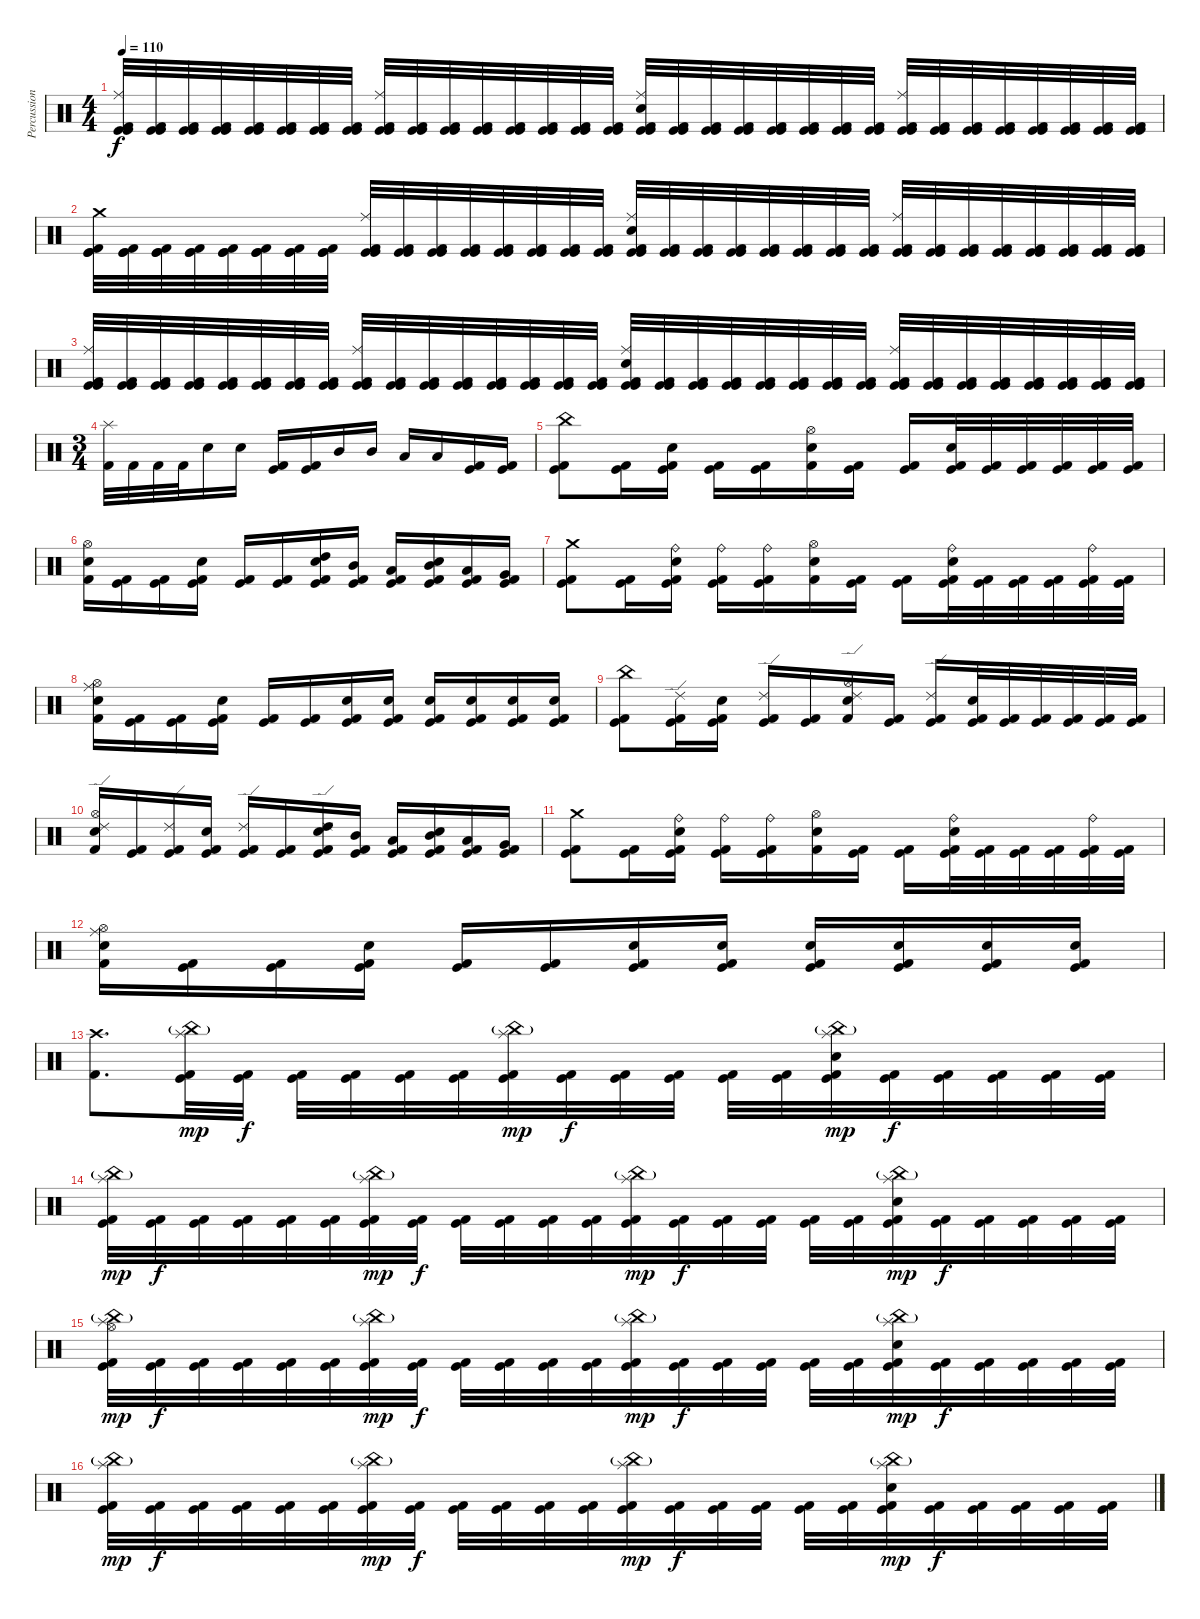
\track ("Percussion" "Percussion") {instrument percussion}
\staff {score}
\articulation defaults
\ts (4 4)
\tempo 110
\clef neutral
\ks c
("Kick (hit)" "Ride (middle)" "Kick (hit)" "Kick (hit) 2").32{dy f} ("Kick (hit)" "Kick (hit)" "Kick (hit) 2").32 ("Kick (hit)" "Kick (hit)" "Kick (hit) 2").32 ("Kick (hit)" "Kick (hit)" "Kick (hit) 2").32 ("Kick (hit)" "Kick (hit)" "Kick (hit) 2").32 ("Kick (hit)" "Kick (hit)" "Kick (hit) 2").32 ("Kick (hit)" "Kick (hit)" "Kick (hit) 2").32 ("Kick (hit)" "Kick (hit)" "Kick (hit) 2").32 ("Kick (hit)" "Ride (middle)" "Kick (hit)" "Kick (hit) 2").32 ("Kick (hit)" "Kick (hit)" "Kick (hit) 2").32 ("Kick (hit)" "Kick (hit)" "Kick (hit) 2").32 ("Kick (hit)" "Kick (hit)" "Kick (hit) 2").32 ("Kick (hit)" "Kick (hit)" "Kick (hit) 2").32 ("Kick (hit)" "Kick (hit)" "Kick (hit) 2").32 ("Kick (hit)" "Kick (hit)" "Kick (hit) 2").32 ("Kick (hit)" "Kick (hit)" "Kick (hit) 2").32 ("Kick (hit)" "Electric Snare (hit)" "Ride (middle)" "Kick (hit)" "Kick (hit) 2").32 ("Kick (hit)" "Kick (hit)" "Kick (hit) 2").32 ("Kick (hit)" "Kick (hit)" "Kick (hit) 2").32 ("Kick (hit)" "Kick (hit)" "Kick (hit) 2").32 ("Kick (hit)" "Kick (hit)" "Kick (hit) 2").32 ("Kick (hit)" "Kick (hit)" "Kick (hit) 2").32 ("Kick (hit)" "Kick (hit)" "Kick (hit) 2").32 ("Kick (hit)" "Kick (hit)" "Kick (hit) 2").32 ("Kick (hit)" "Ride (middle)" "Kick (hit)" "Kick (hit) 2").32 ("Kick (hit)" "Kick (hit)" "Kick (hit) 2").32 ("Kick (hit)" "Kick (hit)" "Kick (hit) 2").32 ("Kick (hit)" "Kick (hit)" "Kick (hit) 2").32 ("Kick (hit)" "Kick (hit)" "Kick (hit) 2").32 ("Kick (hit)" "Kick (hit)" "Kick (hit) 2").32 ("Kick (hit)" "Kick (hit)" "Kick (hit) 2").32 ("Kick (hit)" "Kick (hit)" "Kick (hit) 2").32 |
("Kick (hit)" "Crash medium (hit)" "Kick (hit)" "Kick (hit) 2").32 ("Kick (hit)" "Kick (hit)" "Kick (hit) 2").32 ("Kick (hit)" "Kick (hit)" "Kick (hit) 2").32 ("Kick (hit)" "Kick (hit)" "Kick (hit) 2").32 ("Kick (hit)" "Kick (hit)" "Kick (hit) 2").32 ("Kick (hit)" "Kick (hit)" "Kick (hit) 2").32 ("Kick (hit)" "Kick (hit)" "Kick (hit) 2").32 ("Kick (hit)" "Kick (hit)" "Kick (hit) 2").32 ("Kick (hit)" "Ride (middle)" "Kick (hit)" "Kick (hit) 2").32 ("Kick (hit)" "Kick (hit)" "Kick (hit) 2").32 ("Kick (hit)" "Kick (hit)" "Kick (hit) 2").32 ("Kick (hit)" "Kick (hit)" "Kick (hit) 2").32 ("Kick (hit)" "Kick (hit)" "Kick (hit) 2").32 ("Kick (hit)" "Kick (hit)" "Kick (hit) 2").32 ("Kick (hit)" "Kick (hit)" "Kick (hit) 2").32 ("Kick (hit)" "Kick (hit)" "Kick (hit) 2").32 ("Kick (hit)" "Electric Snare (hit)" "Ride (middle)" "Kick (hit)" "Kick (hit) 2").32 ("Kick (hit)" "Kick (hit)" "Kick (hit) 2").32 ("Kick (hit)" "Kick (hit)" "Kick (hit) 2").32 ("Kick (hit)" "Kick (hit)" "Kick (hit) 2").32 ("Kick (hit)" "Kick (hit)" "Kick (hit) 2").32 ("Kick (hit)" "Kick (hit)" "Kick (hit) 2").32 ("Kick (hit)" "Kick (hit)" "Kick (hit) 2").32 ("Kick (hit)" "Kick (hit)" "Kick (hit) 2").32 ("Kick (hit)" "Ride (middle)" "Kick (hit)" "Kick (hit) 2").32 ("Kick (hit)" "Kick (hit)" "Kick (hit) 2").32 ("Kick (hit)" "Kick (hit)" "Kick (hit) 2").32 ("Kick (hit)" "Kick (hit)" "Kick (hit) 2").32 ("Kick (hit)" "Kick (hit)" "Kick (hit) 2").32 ("Kick (hit)" "Kick (hit)" "Kick (hit) 2").32 ("Kick (hit)" "Kick (hit)" "Kick (hit) 2").32 ("Kick (hit)" "Kick (hit)" "Kick (hit) 2").32 |
("Kick (hit)" "Ride (middle)" "Kick (hit)" "Kick (hit) 2").32 ("Kick (hit)" "Kick (hit)" "Kick (hit) 2").32 ("Kick (hit)" "Kick (hit)" "Kick (hit) 2").32 ("Kick (hit)" "Kick (hit)" "Kick (hit) 2").32 ("Kick (hit)" "Kick (hit)" "Kick (hit) 2").32 ("Kick (hit)" "Kick (hit)" "Kick (hit) 2").32 ("Kick (hit)" "Kick (hit)" "Kick (hit) 2").32 ("Kick (hit)" "Kick (hit)" "Kick (hit) 2").32 ("Kick (hit)" "Ride (middle)" "Kick (hit)" "Kick (hit) 2").32 ("Kick (hit)" "Kick (hit)" "Kick (hit) 2").32 ("Kick (hit)" "Kick (hit)" "Kick (hit) 2").32 ("Kick (hit)" "Kick (hit)" "Kick (hit) 2").32 ("Kick (hit)" "Kick (hit)" "Kick (hit) 2").32 ("Kick (hit)" "Kick (hit)" "Kick (hit) 2").32 ("Kick (hit)" "Kick (hit)" "Kick (hit) 2").32 ("Kick (hit)" "Kick (hit)" "Kick (hit) 2").32 ("Kick (hit)" "Electric Snare (hit)" "Ride (middle)" "Kick (hit)" "Kick (hit) 2").32 ("Kick (hit)" "Kick (hit)" "Kick (hit) 2").32 ("Kick (hit)" "Kick (hit)" "Kick (hit) 2").32 ("Kick (hit)" "Kick (hit)" "Kick (hit) 2").32 ("Kick (hit)" "Kick (hit)" "Kick (hit) 2").32 ("Kick (hit)" "Kick (hit)" "Kick (hit) 2").32 ("Kick (hit)" "Kick (hit)" "Kick (hit) 2").32 ("Kick (hit)" "Kick (hit)" "Kick (hit) 2").32 ("Kick (hit)" "Ride (middle)" "Kick (hit)" "Kick (hit) 2").32 ("Kick (hit)" "Kick (hit)" "Kick (hit) 2").32 ("Kick (hit)" "Kick (hit)" "Kick (hit) 2").32 ("Kick (hit)" "Kick (hit)" "Kick (hit) 2").32 ("Kick (hit)" "Kick (hit)" "Kick (hit) 2").32 ("Kick (hit)" "Kick (hit)" "Kick (hit) 2").32 ("Kick (hit)" "Kick (hit)" "Kick (hit) 2").32 ("Kick (hit)" "Kick (hit)" "Kick (hit) 2").32 |
\ts (3 4)
("Splash (hit)" "Kick (hit) 2").32 "Kick (hit) 2".32 "Kick (hit) 2".32 "Kick (hit) 2".32 "Electric Snare (hit)".16 "Electric Snare (hit)".16 ("Kick (hit)" "Kick (hit) 2").16 ("Kick (hit)" "Kick (hit) 2").16 "Mid Tom (hit)".16 "Mid Tom (hit)".16 "Low Tom (hit)".16 "Low Tom (hit)".16 ("Kick (hit)" "Kick (hit) 2").16 ("Kick (hit)" "Kick (hit) 2").16 |
("Kick (hit)" "China (hit)" "Kick (hit) 2").8 ("Kick (hit)" "Kick (hit) 2").16 ("Kick (hit)" "Electric Snare (hit)" "Kick (hit) 2").16 ("Kick (hit)" "Kick (hit) 2").16 ("Kick (hit)" "Kick (hit) 2").16 ("Hi-Hat (open)" "Electric Snare (hit)" "Kick (hit) 2").16 ("Kick (hit)" "Kick (hit) 2").16 ("Kick (hit)" "Kick (hit) 2").16 ("Kick (hit)" "Electric Snare (hit)" "Kick (hit) 2").32 ("Kick (hit)" "Kick (hit) 2").32 ("Kick (hit)" "Kick (hit) 2").32 ("Kick (hit)" "Kick (hit) 2").32 ("Kick (hit)" "Kick (hit) 2").32 ("Kick (hit)" "Kick (hit) 2").32 |
("Hi-Hat (open)" "Electric Snare (hit)" "Kick (hit) 2").16 ("Kick (hit)" "Kick (hit) 2").16 ("Kick (hit)" "Kick (hit) 2").16 ("Kick (hit)" "Electric Snare (hit)" "Kick (hit) 2").16 ("Kick (hit)" "Kick (hit) 2").16 ("Kick (hit)" "Kick (hit) 2").16 ("Kick (hit)" "Electric Snare (hit)" "High Tom (hit)" "Kick (hit) 2").16 ("Kick (hit)" "Mid Tom (hit)" "Kick (hit) 2").16 ("Kick (hit)" "Low Tom (hit)" "Kick (hit) 2").16 ("Kick (hit)" "Electric Snare (hit)" "Mid Tom (hit)" "Kick (hit) 2").16 ("Kick (hit)" "Low Tom (hit)" "Kick (hit) 2").16 ("Kick (hit)" "Very Low Tom (hit)" "Kick (hit) 2").16 |
("Kick (hit)" "Crash medium (hit)" "Kick (hit) 2").8 ("Kick (hit)" "Kick (hit) 2").16 ("Kick (hit)" "Electric Snare (hit)" "Ride (bell)" "Kick (hit) 2").16 ("Kick (hit)" "Ride (bell)" "Kick (hit) 2").16 ("Kick (hit)" "Ride (bell)" "Kick (hit) 2").16 ("Hi-Hat (open)" "Electric Snare (hit)" "Kick (hit) 2").16 ("Kick (hit)" "Kick (hit) 2").16 ("Kick (hit)" "Kick (hit) 2").16 ("Kick (hit)" "Electric Snare (hit)" "Ride (bell)" "Kick (hit) 2").32 ("Kick (hit)" "Kick (hit) 2").32 ("Kick (hit)" "Kick (hit) 2").32 ("Kick (hit)" "Kick (hit) 2").32 ("Kick (hit)" "Ride (bell)" "Kick (hit) 2").32 ("Kick (hit)" "Kick (hit) 2").32 |
("Hi-Hat (open)" "Electric Snare (hit)" "Ride (middle)" "Kick (hit) 2").16 ("Kick (hit)" "Kick (hit) 2").16 ("Kick (hit)" "Kick (hit) 2").16 ("Kick (hit)" "Electric Snare (hit)" "Kick (hit) 2").16 ("Kick (hit)" "Kick (hit) 2").16 ("Kick (hit)" "Kick (hit) 2").16 ("Kick (hit)" "Electric Snare (hit)" "Kick (hit) 2").16 ("Kick (hit)" "Electric Snare (hit)" "Kick (hit) 2").16 ("Kick (hit)" "Electric Snare (hit)" "Kick (hit) 2").16 ("Kick (hit)" "Electric Snare (hit)" "Kick (hit) 2").16 ("Kick (hit)" "Electric Snare (hit)" "Kick (hit) 2").16 ("Kick (hit)" "Electric Snare (hit)" "Kick (hit) 2").16 |
("Kick (hit)" "China (hit)" "Kick (hit) 2").8 ("Kick (hit)" "Ride (edge) 2" "Kick (hit) 2").16 ("Kick (hit)" "Electric Snare (hit)" "Kick (hit) 2").16 ("Kick (hit)" "Ride (edge) 2" "Kick (hit) 2").16 ("Kick (hit)" "Kick (hit) 2").16 ("Hi-Hat (open)" "Ride (edge) 2" "Electric Snare (hit)" "Kick (hit) 2").16 ("Kick (hit)" "Kick (hit) 2").16 ("Kick (hit)" "Ride (edge) 2" "Kick (hit) 2").16 ("Kick (hit)" "Electric Snare (hit)" "Kick (hit) 2").32 ("Kick (hit)" "Kick (hit) 2").32 ("Kick (hit)" "Kick (hit) 2").32 ("Kick (hit)" "Kick (hit) 2").32 ("Kick (hit)" "Kick (hit) 2").32 ("Kick (hit)" "Kick (hit) 2").32 |
("Hi-Hat (open)" "Ride (edge) 2" "Electric Snare (hit)" "Kick (hit) 2").16 ("Kick (hit)" "Kick (hit) 2").16 ("Kick (hit)" "Ride (edge) 2" "Kick (hit) 2").16 ("Kick (hit)" "Electric Snare (hit)" "Kick (hit) 2").16 ("Kick (hit)" "Ride (edge) 2" "Kick (hit) 2").16 ("Kick (hit)" "Kick (hit) 2").16 ("Kick (hit)" "Ride (edge) 2" "Electric Snare (hit)" "High Tom (hit)" "Kick (hit) 2").16 ("Kick (hit)" "Mid Tom (hit)" "Kick (hit) 2").16 ("Kick (hit)" "Low Tom (hit)" "Kick (hit) 2").16 ("Kick (hit)" "Electric Snare (hit)" "Mid Tom (hit)" "Kick (hit) 2").16 ("Kick (hit)" "Low Tom (hit)" "Kick (hit) 2").16 ("Kick (hit)" "Very Low Tom (hit)" "Kick (hit) 2").16 |
("Kick (hit)" "Crash medium (hit)" "Kick (hit) 2").8 ("Kick (hit)" "Kick (hit) 2").16 ("Kick (hit)" "Electric Snare (hit)" "Ride (bell)" "Kick (hit) 2").16 ("Kick (hit)" "Ride (bell)" "Kick (hit) 2").16 ("Kick (hit)" "Ride (bell)" "Kick (hit) 2").16 ("Hi-Hat (open)" "Electric Snare (hit)" "Kick (hit) 2").16 ("Kick (hit)" "Kick (hit) 2").16 ("Kick (hit)" "Kick (hit) 2").16 ("Kick (hit)" "Electric Snare (hit)" "Ride (bell)" "Kick (hit) 2").32 ("Kick (hit)" "Kick (hit) 2").32 ("Kick (hit)" "Kick (hit) 2").32 ("Kick (hit)" "Kick (hit) 2").32 ("Kick (hit)" "Ride (bell)" "Kick (hit) 2").32 ("Kick (hit)" "Kick (hit) 2").32 |
("Hi-Hat (open)" "Electric Snare (hit)" "Ride (middle)" "Kick (hit) 2").16 ("Kick (hit)" "Kick (hit) 2").16 ("Kick (hit)" "Kick (hit) 2").16 ("Kick (hit)" "Electric Snare (hit)" "Kick (hit) 2").16 ("Kick (hit)" "Kick (hit) 2").16 ("Kick (hit)" "Kick (hit) 2").16 ("Kick (hit)" "Electric Snare (hit)" "Kick (hit) 2").16 ("Kick (hit)" "Electric Snare (hit)" "Kick (hit) 2").16 ("Kick (hit)" "Electric Snare (hit)" "Kick (hit) 2").16 ("Kick (hit)" "Electric Snare (hit)" "Kick (hit) 2").16 ("Kick (hit)" "Electric Snare (hit)" "Kick (hit) 2").16 ("Kick (hit)" "Electric Snare (hit)" "Kick (hit) 2").16 |
("Crash high (hit)" "Kick (hit) 2").8{d} ("China (hit)"{g} "Splash (hit)" "Kick (hit)" "Kick (hit) 2").32{dy mp} ("Kick (hit)" "Kick (hit) 2").32{dy f} ("Kick (hit)" "Kick (hit) 2").32 ("Kick (hit)" "Kick (hit) 2").32 ("Kick (hit)" "Kick (hit) 2").32 ("Kick (hit)" "Kick (hit) 2").32 ("China (hit)"{g} "Splash (hit)" "Kick (hit)" "Kick (hit) 2").32{dy mp} ("Kick (hit)" "Kick (hit) 2").32{dy f} ("Kick (hit)" "Kick (hit) 2").32 ("Kick (hit)" "Kick (hit) 2").32 ("Kick (hit)" "Kick (hit) 2").32 ("Kick (hit)" "Kick (hit) 2").32 ("China (hit)"{g} "Splash (hit)" "Electric Snare (hit)" "Kick (hit)" "Kick (hit) 2").32{dy mp} ("Kick (hit)" "Kick (hit) 2").32{dy f} ("Kick (hit)" "Kick (hit) 2").32 ("Kick (hit)" "Kick (hit) 2").32 ("Kick (hit)" "Kick (hit) 2").32 ("Kick (hit)" "Kick (hit) 2").32 |
("China (hit)"{g} "Splash (hit)" "Kick (hit)" "Kick (hit) 2").32{dy mp} ("Kick (hit)" "Kick (hit) 2").32{dy f} ("Kick (hit)" "Kick (hit) 2").32 ("Kick (hit)" "Kick (hit) 2").32 ("Kick (hit)" "Kick (hit) 2").32 ("Kick (hit)" "Kick (hit) 2").32 ("China (hit)"{g} "Splash (hit)" "Kick (hit)" "Kick (hit) 2").32{dy mp} ("Kick (hit)" "Kick (hit) 2").32{dy f} ("Kick (hit)" "Kick (hit) 2").32 ("Kick (hit)" "Kick (hit) 2").32 ("Kick (hit)" "Kick (hit) 2").32 ("Kick (hit)" "Kick (hit) 2").32 ("China (hit)"{g} "Splash (hit)" "Kick (hit)" "Kick (hit) 2").32{dy mp} ("Kick (hit)" "Kick (hit) 2").32{dy f} ("Kick (hit)" "Kick (hit) 2").32 ("Kick (hit)" "Kick (hit) 2").32 ("Kick (hit)" "Kick (hit) 2").32 ("Kick (hit)" "Kick (hit) 2").32 ("China (hit)"{g} "Splash (hit)" "Electric Snare (hit)" "Kick (hit)" "Kick (hit) 2").32{dy mp} ("Kick (hit)" "Kick (hit) 2").32{dy f} ("Kick (hit)" "Kick (hit) 2").32 ("Kick (hit)" "Kick (hit) 2").32 ("Kick (hit)" "Kick (hit) 2").32 ("Kick (hit)" "Kick (hit) 2").32 |
("China (hit)"{g} "Splash (hit)" "Hi-Hat (open)" "Kick (hit)" "Kick (hit) 2").32{dy mp} ("Kick (hit)" "Kick (hit) 2").32{dy f} ("Kick (hit)" "Kick (hit) 2").32 ("Kick (hit)" "Kick (hit) 2").32 ("Kick (hit)" "Kick (hit) 2").32 ("Kick (hit)" "Kick (hit) 2").32 ("China (hit)"{g} "Splash (hit)" "Kick (hit)" "Kick (hit) 2").32{dy mp} ("Kick (hit)" "Kick (hit) 2").32{dy f} ("Kick (hit)" "Kick (hit) 2").32 ("Kick (hit)" "Kick (hit) 2").32 ("Kick (hit)" "Kick (hit) 2").32 ("Kick (hit)" "Kick (hit) 2").32 ("China (hit)"{g} "Splash (hit)" "Kick (hit)" "Kick (hit) 2").32{dy mp} ("Kick (hit)" "Kick (hit) 2").32{dy f} ("Kick (hit)" "Kick (hit) 2").32 ("Kick (hit)" "Kick (hit) 2").32 ("Kick (hit)" "Kick (hit) 2").32 ("Kick (hit)" "Kick (hit) 2").32 ("China (hit)"{g} "Splash (hit)" "Electric Snare (hit)" "Kick (hit)" "Kick (hit) 2").32{dy mp} ("Kick (hit)" "Kick (hit) 2").32{dy f} ("Kick (hit)" "Kick (hit) 2").32 ("Kick (hit)" "Kick (hit) 2").32 ("Kick (hit)" "Kick (hit) 2").32 ("Kick (hit)" "Kick (hit) 2").32 |
("China (hit)"{g} "Splash (hit)" "Kick (hit)" "Kick (hit) 2").32{dy mp} ("Kick (hit)" "Kick (hit) 2").32{dy f} ("Kick (hit)" "Kick (hit) 2").32 ("Kick (hit)" "Kick (hit) 2").32 ("Kick (hit)" "Kick (hit) 2").32 ("Kick (hit)" "Kick (hit) 2").32 ("China (hit)"{g} "Splash (hit)" "Kick (hit)" "Kick (hit) 2").32{dy mp} ("Kick (hit)" "Kick (hit) 2").32{dy f} ("Kick (hit)" "Kick (hit) 2").32 ("Kick (hit)" "Kick (hit) 2").32 ("Kick (hit)" "Kick (hit) 2").32 ("Kick (hit)" "Kick (hit) 2").32 ("China (hit)"{g} "Splash (hit)" "Kick (hit)" "Kick (hit) 2").32{dy mp} ("Kick (hit)" "Kick (hit) 2").32{dy f} ("Kick (hit)" "Kick (hit) 2").32 ("Kick (hit)" "Kick (hit) 2").32 ("Kick (hit)" "Kick (hit) 2").32 ("Kick (hit)" "Kick (hit) 2").32 ("China (hit)"{g} "Splash (hit)" "Electric Snare (hit)" "Kick (hit)" "Kick (hit) 2").32{dy mp} ("Kick (hit)" "Kick (hit) 2").32{dy f} ("Kick (hit)" "Kick (hit) 2").32 ("Kick (hit)" "Kick (hit) 2").32 ("Kick (hit)" "Kick (hit) 2").32 ("Kick (hit)" "Kick (hit) 2").32
